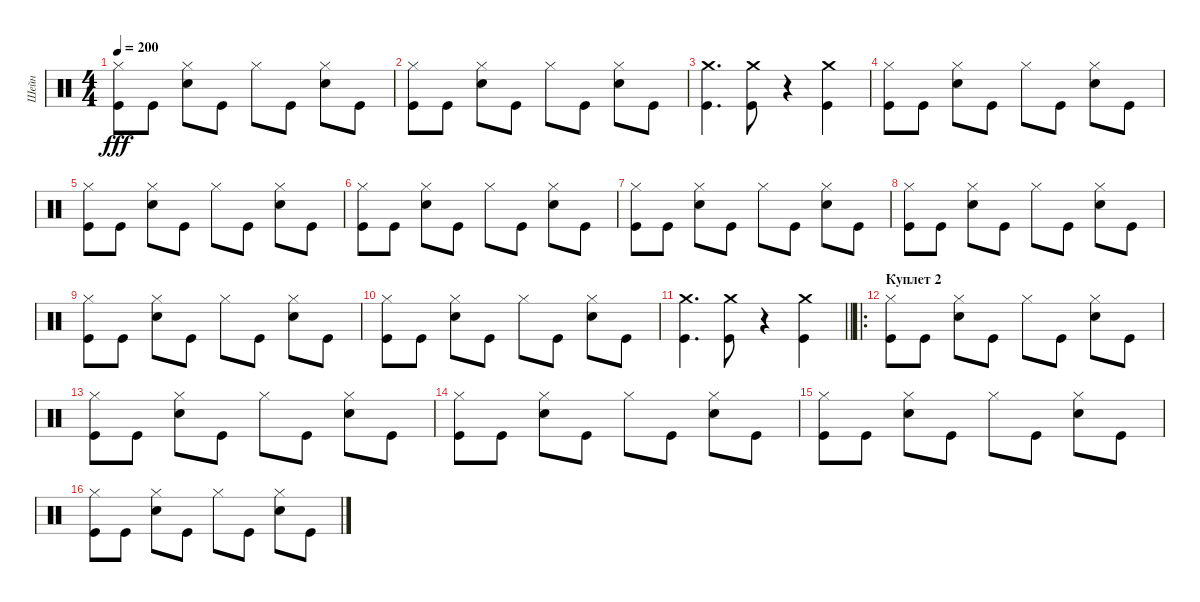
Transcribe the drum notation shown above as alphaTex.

\track ("Шейн" "Шейн") {instrument percussion}
\staff {score}
\articulation defaults
\ts (4 4)
\tempo 200
\clef neutral
\ks c
("Kick (hit)" "Hi-Hat (closed)").8{dy fff} "Kick (hit)".8 ("Snare (hit) 2" "Hi-Hat (closed)").8 "Kick (hit)".8 "Hi-Hat (closed)".8 "Kick (hit)".8 ("Snare (hit) 2" "Hi-Hat (closed)").8 "Kick (hit)".8 |
("Kick (hit)" "Hi-Hat (closed)").8 "Kick (hit)".8 ("Snare (hit) 2" "Hi-Hat (closed)").8 "Kick (hit)".8 "Hi-Hat (closed)".8 "Kick (hit)".8 ("Snare (hit) 2" "Hi-Hat (closed)").8 "Kick (hit)".8 |
("Kick (hit)" "Crash medium (hit)").4{d} ("Kick (hit)" "Crash medium (hit)").8 r.4 ("Crash medium (hit)" "Kick (hit)").4 |
("Kick (hit)" "Hi-Hat (closed)").8 "Kick (hit)".8 ("Snare (hit) 2" "Hi-Hat (closed)").8 "Kick (hit)".8 "Hi-Hat (closed)".8 "Kick (hit)".8 ("Snare (hit) 2" "Hi-Hat (closed)").8 "Kick (hit)".8 |
("Kick (hit)" "Hi-Hat (closed)").8 "Kick (hit)".8 ("Snare (hit) 2" "Hi-Hat (closed)").8 "Kick (hit)".8 "Hi-Hat (closed)".8 "Kick (hit)".8 ("Snare (hit) 2" "Hi-Hat (closed)").8 "Kick (hit)".8 |
("Kick (hit)" "Hi-Hat (closed)").8 "Kick (hit)".8 ("Snare (hit) 2" "Hi-Hat (closed)").8 "Kick (hit)".8 "Hi-Hat (closed)".8 "Kick (hit)".8 ("Snare (hit) 2" "Hi-Hat (closed)").8 "Kick (hit)".8 |
("Kick (hit)" "Hi-Hat (closed)").8 "Kick (hit)".8 ("Snare (hit) 2" "Hi-Hat (closed)").8 "Kick (hit)".8 "Hi-Hat (closed)".8 "Kick (hit)".8 ("Snare (hit) 2" "Hi-Hat (closed)").8 "Kick (hit)".8 |
("Kick (hit)" "Hi-Hat (closed)").8 "Kick (hit)".8 ("Snare (hit) 2" "Hi-Hat (closed)").8 "Kick (hit)".8 "Hi-Hat (closed)".8 "Kick (hit)".8 ("Snare (hit) 2" "Hi-Hat (closed)").8 "Kick (hit)".8 |
("Kick (hit)" "Hi-Hat (closed)").8 "Kick (hit)".8 ("Snare (hit) 2" "Hi-Hat (closed)").8 "Kick (hit)".8 "Hi-Hat (closed)".8 "Kick (hit)".8 ("Snare (hit) 2" "Hi-Hat (closed)").8 "Kick (hit)".8 |
("Kick (hit)" "Hi-Hat (closed)").8 "Kick (hit)".8 ("Snare (hit) 2" "Hi-Hat (closed)").8 "Kick (hit)".8 "Hi-Hat (closed)".8 "Kick (hit)".8 ("Snare (hit) 2" "Hi-Hat (closed)").8 "Kick (hit)".8 |
\barLineRight lightlight
("Kick (hit)" "Crash medium (hit)").4{d} ("Kick (hit)" "Crash medium (hit)").8 r.4 ("Crash medium (hit)" "Kick (hit)").4 |
\ro
\section ("" "Куплет 2")
("Kick (hit)" "Hi-Hat (closed)").8 "Kick (hit)".8 ("Snare (hit) 2" "Hi-Hat (closed)").8 "Kick (hit)".8 "Hi-Hat (closed)".8 "Kick (hit)".8 ("Snare (hit) 2" "Hi-Hat (closed)").8 "Kick (hit)".8 |
("Kick (hit)" "Hi-Hat (closed)").8 "Kick (hit)".8 ("Snare (hit) 2" "Hi-Hat (closed)").8 "Kick (hit)".8 "Hi-Hat (closed)".8 "Kick (hit)".8 ("Snare (hit) 2" "Hi-Hat (closed)").8 "Kick (hit)".8 |
("Kick (hit)" "Hi-Hat (closed)").8 "Kick (hit)".8 ("Snare (hit) 2" "Hi-Hat (closed)").8 "Kick (hit)".8 "Hi-Hat (closed)".8 "Kick (hit)".8 ("Snare (hit) 2" "Hi-Hat (closed)").8 "Kick (hit)".8 |
("Kick (hit)" "Hi-Hat (closed)").8 "Kick (hit)".8 ("Snare (hit) 2" "Hi-Hat (closed)").8 "Kick (hit)".8 "Hi-Hat (closed)".8 "Kick (hit)".8 ("Snare (hit) 2" "Hi-Hat (closed)").8 "Kick (hit)".8 |
("Kick (hit)" "Hi-Hat (closed)").8 "Kick (hit)".8 ("Snare (hit) 2" "Hi-Hat (closed)").8 "Kick (hit)".8 "Hi-Hat (closed)".8 "Kick (hit)".8 ("Snare (hit) 2" "Hi-Hat (closed)").8 "Kick (hit)".8
